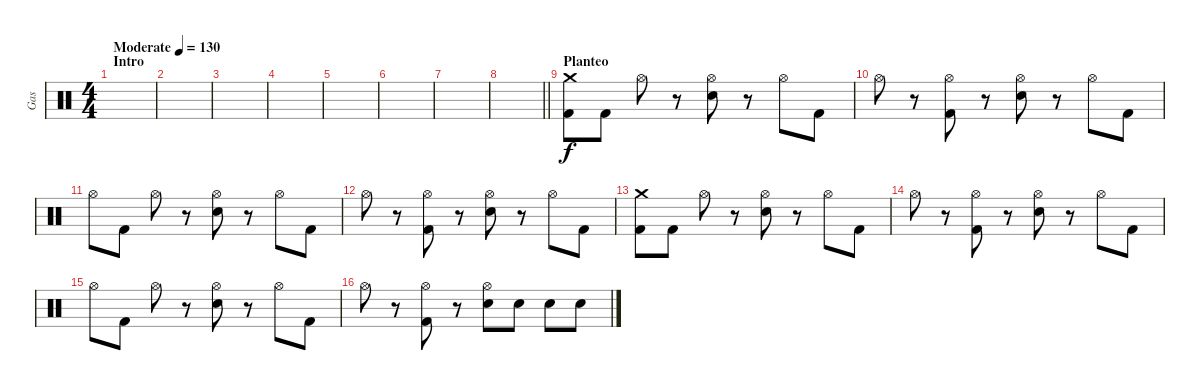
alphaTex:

\track ("Gas" "Gas") {instrument percussion}
\staff {score}
\articulation defaults
\ts (4 4)
\section ("" "Intro")
\tempo (130 "Moderate")
\clef neutral
\ks c
|
|
|
|
|
|
|
\barLineRight lightlight
|
\section ("" "Planteo")
("Crash medium (hit)" "Kick (hit) 2").8 "Kick (hit) 2".8 "Hi-Hat (open)".8 r.8 ("Hi-Hat (open)" "Electric Snare (hit)").8 r.8 "Hi-Hat (open)".8 "Kick (hit) 2".8 |
"Hi-Hat (open)".8 r.8 ("Hi-Hat (open)" "Kick (hit) 2").8 r.8 ("Hi-Hat (open)" "Electric Snare (hit)").8 r.8 "Hi-Hat (open)".8 "Kick (hit) 2".8 |
"Hi-Hat (open)".8 "Kick (hit) 2".8 "Hi-Hat (open)".8 r.8 ("Hi-Hat (open)" "Electric Snare (hit)").8 r.8 "Hi-Hat (open)".8 "Kick (hit) 2".8 |
"Hi-Hat (open)".8 r.8 ("Hi-Hat (open)" "Kick (hit) 2").8 r.8 ("Hi-Hat (open)" "Electric Snare (hit)").8 r.8 "Hi-Hat (open)".8 "Kick (hit) 2".8 |
("Crash medium (hit)" "Kick (hit) 2").8 "Kick (hit) 2".8 "Hi-Hat (open)".8 r.8 ("Hi-Hat (open)" "Electric Snare (hit)").8 r.8 "Hi-Hat (open)".8 "Kick (hit) 2".8 |
"Hi-Hat (open)".8 r.8 ("Hi-Hat (open)" "Kick (hit) 2").8 r.8 ("Hi-Hat (open)" "Electric Snare (hit)").8 r.8 "Hi-Hat (open)".8 "Kick (hit) 2".8 |
"Hi-Hat (open)".8 "Kick (hit) 2".8 "Hi-Hat (open)".8 r.8 ("Hi-Hat (open)" "Electric Snare (hit)").8 r.8 "Hi-Hat (open)".8 "Kick (hit) 2".8 |
"Hi-Hat (open)".8 r.8 ("Hi-Hat (open)" "Kick (hit) 2").8 r.8 ("Hi-Hat (open)" "Electric Snare (hit)").8 "Electric Snare (hit)".8 "Electric Snare (hit)".8 "Electric Snare (hit)".8
